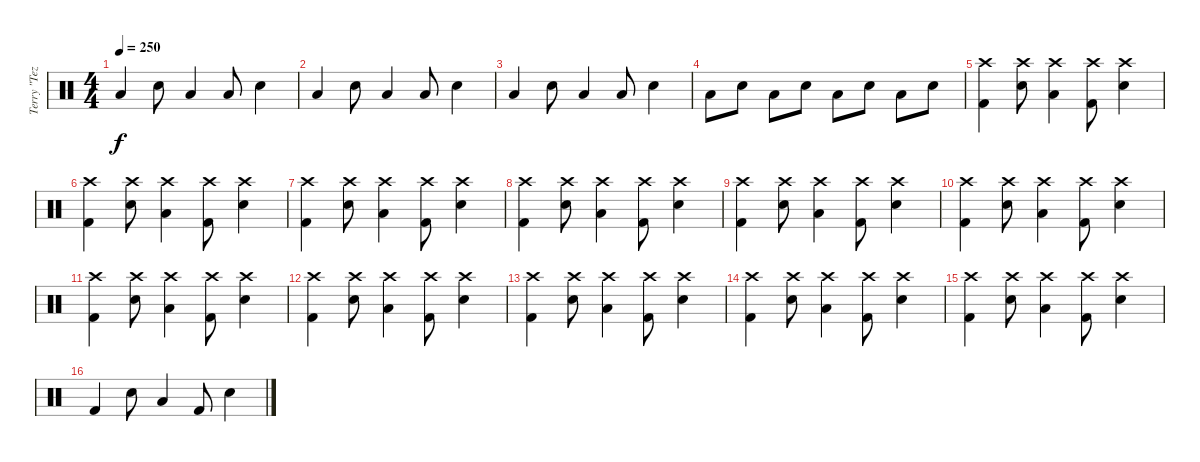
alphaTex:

\track ("Terry \"Tezz\" Roberts" "Terry \"Tez") {instrument percussion}
\staff {score}
\articulation defaults
\ts (4 4)
\tempo 250
\clef neutral
\ks c "Low Floor Tom (hit)".4{dy f} "Snare (hit) 2".8 "Low Tom (hit)".4 "Low Floor Tom (hit)".8 "Snare (hit) 2".4
|
"Low Floor Tom (hit)".4 "Snare (hit) 2".8 "Low Tom (hit)".4 "Low Floor Tom (hit)".8 "Snare (hit) 2".4 |
"Low Floor Tom (hit)".4 "Snare (hit) 2".8 "Low Tom (hit)".4 "Low Floor Tom (hit)".8 "Snare (hit) 2".4 |
"Low Tom (hit)".8 "Snare (hit) 2".8 "Low Tom (hit)".8 "Snare (hit) 2".8 "Low Tom (hit)".8 "Snare (hit) 2".8 "Low Tom (hit)".8 "Snare (hit) 2".8 |
("Kick (hit) 2" "Crash high (hit)").4 ("Snare (hit) 2" "Crash high (hit)").8 ("Low Tom (hit)" "Crash high (hit)").4 ("Kick (hit) 2" "Crash high (hit)").8 ("Snare (hit) 2" "Crash high (hit)").4 |
("Kick (hit) 2" "Crash high (hit)").4 ("Snare (hit) 2" "Crash high (hit)").8 ("Low Tom (hit)" "Crash high (hit)").4 ("Kick (hit) 2" "Crash high (hit)").8 ("Snare (hit) 2" "Crash high (hit)").4 |
("Kick (hit) 2" "Crash high (hit)").4 ("Snare (hit) 2" "Crash high (hit)").8 ("Low Tom (hit)" "Crash high (hit)").4 ("Kick (hit) 2" "Crash high (hit)").8 ("Snare (hit) 2" "Crash high (hit)").4 |
("Kick (hit) 2" "Crash high (hit)").4 ("Snare (hit) 2" "Crash high (hit)").8 ("Low Tom (hit)" "Crash high (hit)").4 ("Kick (hit) 2" "Crash high (hit)").8 ("Snare (hit) 2" "Crash high (hit)").4 |
("Kick (hit) 2" "Crash high (hit)").4 ("Snare (hit) 2" "Crash high (hit)").8 ("Low Tom (hit)" "Crash high (hit)").4 ("Kick (hit) 2" "Crash high (hit)").8 ("Snare (hit) 2" "Crash high (hit)").4 |
("Kick (hit) 2" "Crash high (hit)").4 ("Snare (hit) 2" "Crash high (hit)").8 ("Low Tom (hit)" "Crash high (hit)").4 ("Kick (hit) 2" "Crash high (hit)").8 ("Snare (hit) 2" "Crash high (hit)").4 |
("Kick (hit) 2" "Crash high (hit)").4 ("Snare (hit) 2" "Crash high (hit)").8 ("Low Tom (hit)" "Crash high (hit)").4 ("Kick (hit) 2" "Crash high (hit)").8 ("Snare (hit) 2" "Crash high (hit)").4 |
("Kick (hit) 2" "Crash high (hit)").4 ("Snare (hit) 2" "Crash high (hit)").8 ("Low Tom (hit)" "Crash high (hit)").4 ("Kick (hit) 2" "Crash high (hit)").8 ("Snare (hit) 2" "Crash high (hit)").4 |
("Kick (hit) 2" "Crash high (hit)").4 ("Snare (hit) 2" "Crash high (hit)").8 ("Low Tom (hit)" "Crash high (hit)").4 ("Kick (hit) 2" "Crash high (hit)").8 ("Snare (hit) 2" "Crash high (hit)").4 |
("Kick (hit) 2" "Crash high (hit)").4 ("Snare (hit) 2" "Crash high (hit)").8 ("Low Tom (hit)" "Crash high (hit)").4 ("Kick (hit) 2" "Crash high (hit)").8 ("Snare (hit) 2" "Crash high (hit)").4 |
("Kick (hit) 2" "Crash high (hit)").4 ("Snare (hit) 2" "Crash high (hit)").8 ("Low Tom (hit)" "Crash high (hit)").4 ("Kick (hit) 2" "Crash high (hit)").8 ("Snare (hit) 2" "Crash high (hit)").4 |
"Kick (hit) 2".4 "Snare (hit) 2".8 "Low Tom (hit)".4 "Kick (hit) 2".8 "Snare (hit) 2".4
